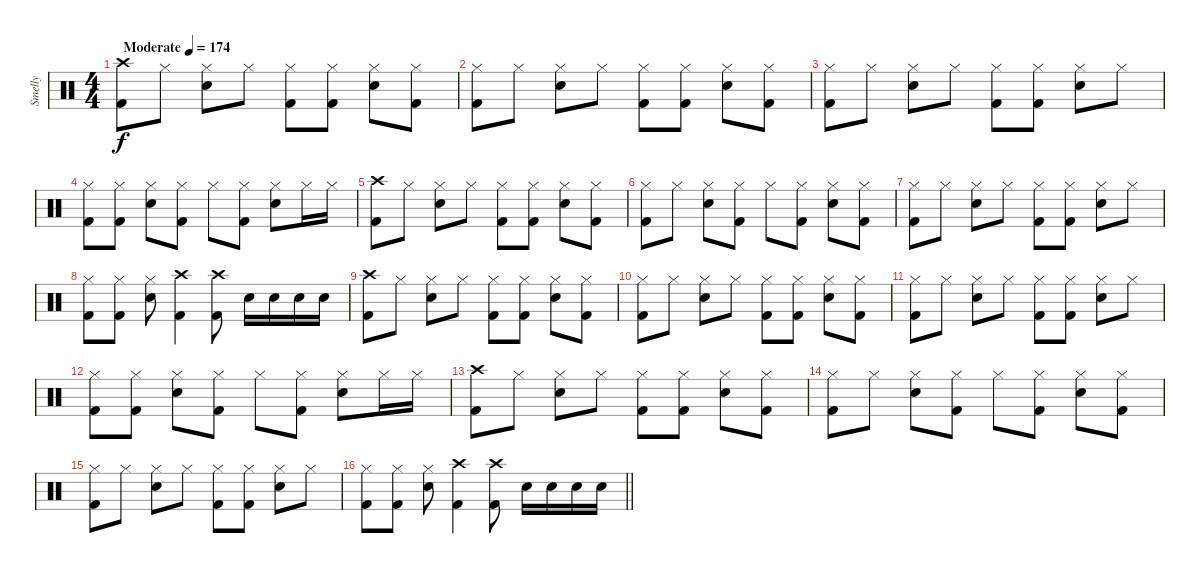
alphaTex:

\track ("Smelly" "Smelly") {instrument percussion}
\staff {score}
\articulation defaults
\ts (4 4)
\tempo (174 "Moderate")
\clef neutral
\ks c
("Crash high (hit)" "Kick (hit) 2").8{dy f} "Hi-Hat (closed)".8 ("Hi-Hat (closed)" "Electric Snare (hit)").8 "Hi-Hat (closed)".8 ("Hi-Hat (closed)" "Kick (hit) 2").8 ("Hi-Hat (closed)" "Kick (hit) 2").8 ("Hi-Hat (closed)" "Electric Snare (hit)").8 ("Hi-Hat (closed)" "Kick (hit) 2").8 |
("Hi-Hat (closed)" "Kick (hit) 2").8 "Hi-Hat (closed)".8 ("Hi-Hat (closed)" "Electric Snare (hit)").8 "Hi-Hat (closed)".8 ("Hi-Hat (closed)" "Kick (hit) 2").8 ("Hi-Hat (closed)" "Kick (hit) 2").8 ("Hi-Hat (closed)" "Electric Snare (hit)").8 ("Hi-Hat (closed)" "Kick (hit) 2").8 |
("Hi-Hat (closed)" "Kick (hit) 2").8 "Hi-Hat (closed)".8 ("Hi-Hat (closed)" "Electric Snare (hit)").8 "Hi-Hat (closed)".8 ("Hi-Hat (closed)" "Kick (hit) 2").8 ("Hi-Hat (closed)" "Kick (hit) 2").8 ("Hi-Hat (closed)" "Electric Snare (hit)").8 "Hi-Hat (closed)".8 |
("Hi-Hat (closed)" "Kick (hit) 2").8 ("Hi-Hat (closed)" "Kick (hit) 2").8 ("Hi-Hat (closed)" "Electric Snare (hit)").8 ("Hi-Hat (closed)" "Kick (hit) 2").8 "Hi-Hat (closed)".8 ("Hi-Hat (closed)" "Kick (hit) 2").8 ("Hi-Hat (closed)" "Electric Snare (hit)").8 "Hi-Hat (closed)".16 "Hi-Hat (closed)".16 |
("Crash high (hit)" "Kick (hit) 2").8 "Hi-Hat (closed)".8 ("Hi-Hat (closed)" "Electric Snare (hit)").8 "Hi-Hat (closed)".8 ("Hi-Hat (closed)" "Kick (hit) 2").8 ("Hi-Hat (closed)" "Kick (hit) 2").8 ("Hi-Hat (closed)" "Electric Snare (hit)").8 ("Hi-Hat (closed)" "Kick (hit) 2").8 |
("Hi-Hat (closed)" "Kick (hit) 2").8 "Hi-Hat (closed)".8 ("Hi-Hat (closed)" "Electric Snare (hit)").8 ("Hi-Hat (closed)" "Kick (hit) 2").8 "Hi-Hat (closed)".8 ("Hi-Hat (closed)" "Kick (hit) 2").8 ("Hi-Hat (closed)" "Electric Snare (hit)").8 ("Hi-Hat (closed)" "Kick (hit) 2").8 |
("Hi-Hat (closed)" "Kick (hit) 2").8 "Hi-Hat (closed)".8 ("Hi-Hat (closed)" "Electric Snare (hit)").8 "Hi-Hat (closed)".8 ("Hi-Hat (closed)" "Kick (hit) 2").8 ("Hi-Hat (closed)" "Kick (hit) 2").8 ("Hi-Hat (closed)" "Electric Snare (hit)").8 "Hi-Hat (closed)".8 |
("Hi-Hat (closed)" "Kick (hit) 2").8 ("Hi-Hat (closed)" "Kick (hit) 2").8 ("Hi-Hat (closed)" "Electric Snare (hit)").8 ("Crash high (hit)" "Kick (hit) 2").4 ("Crash high (hit)" "Kick (hit) 2").8 "Electric Snare (hit)".16 "Electric Snare (hit)".16 "Electric Snare (hit)".16 "Electric Snare (hit)".16 |
("Crash high (hit)" "Kick (hit) 2").8 "Hi-Hat (closed)".8 ("Hi-Hat (closed)" "Electric Snare (hit)").8 "Hi-Hat (closed)".8 ("Hi-Hat (closed)" "Kick (hit) 2").8 ("Hi-Hat (closed)" "Kick (hit) 2").8 ("Hi-Hat (closed)" "Electric Snare (hit)").8 ("Hi-Hat (closed)" "Kick (hit) 2").8 |
("Hi-Hat (closed)" "Kick (hit) 2").8 "Hi-Hat (closed)".8 ("Hi-Hat (closed)" "Electric Snare (hit)").8 "Hi-Hat (closed)".8 ("Hi-Hat (closed)" "Kick (hit) 2").8 ("Hi-Hat (closed)" "Kick (hit) 2").8 ("Hi-Hat (closed)" "Electric Snare (hit)").8 ("Hi-Hat (closed)" "Kick (hit) 2").8 |
("Hi-Hat (closed)" "Kick (hit) 2").8 "Hi-Hat (closed)".8 ("Hi-Hat (closed)" "Electric Snare (hit)").8 "Hi-Hat (closed)".8 ("Hi-Hat (closed)" "Kick (hit) 2").8 ("Hi-Hat (closed)" "Kick (hit) 2").8 ("Hi-Hat (closed)" "Electric Snare (hit)").8 "Hi-Hat (closed)".8 |
("Hi-Hat (closed)" "Kick (hit) 2").8 ("Hi-Hat (closed)" "Kick (hit) 2").8 ("Hi-Hat (closed)" "Electric Snare (hit)").8 ("Hi-Hat (closed)" "Kick (hit) 2").8 "Hi-Hat (closed)".8 ("Hi-Hat (closed)" "Kick (hit) 2").8 ("Hi-Hat (closed)" "Electric Snare (hit)").8 "Hi-Hat (closed)".16 "Hi-Hat (closed)".16 |
("Crash high (hit)" "Kick (hit) 2").8 "Hi-Hat (closed)".8 ("Hi-Hat (closed)" "Electric Snare (hit)").8 "Hi-Hat (closed)".8 ("Hi-Hat (closed)" "Kick (hit) 2").8 ("Hi-Hat (closed)" "Kick (hit) 2").8 ("Hi-Hat (closed)" "Electric Snare (hit)").8 ("Hi-Hat (closed)" "Kick (hit) 2").8 |
("Hi-Hat (closed)" "Kick (hit) 2").8 "Hi-Hat (closed)".8 ("Hi-Hat (closed)" "Electric Snare (hit)").8 ("Hi-Hat (closed)" "Kick (hit) 2").8 "Hi-Hat (closed)".8 ("Hi-Hat (closed)" "Kick (hit) 2").8 ("Hi-Hat (closed)" "Electric Snare (hit)").8 ("Hi-Hat (closed)" "Kick (hit) 2").8 |
("Hi-Hat (closed)" "Kick (hit) 2").8 "Hi-Hat (closed)".8 ("Hi-Hat (closed)" "Electric Snare (hit)").8 "Hi-Hat (closed)".8 ("Hi-Hat (closed)" "Kick (hit) 2").8 ("Hi-Hat (closed)" "Kick (hit) 2").8 ("Hi-Hat (closed)" "Electric Snare (hit)").8 "Hi-Hat (closed)".8 |
\barLineRight lightlight
("Hi-Hat (closed)" "Kick (hit) 2").8 ("Hi-Hat (closed)" "Kick (hit) 2").8 ("Hi-Hat (closed)" "Electric Snare (hit)").8 ("Crash high (hit)" "Kick (hit) 2").4 ("Crash high (hit)" "Kick (hit) 2").8 "Electric Snare (hit)".16 "Electric Snare (hit)".16 "Electric Snare (hit)".16 "Electric Snare (hit)".16
